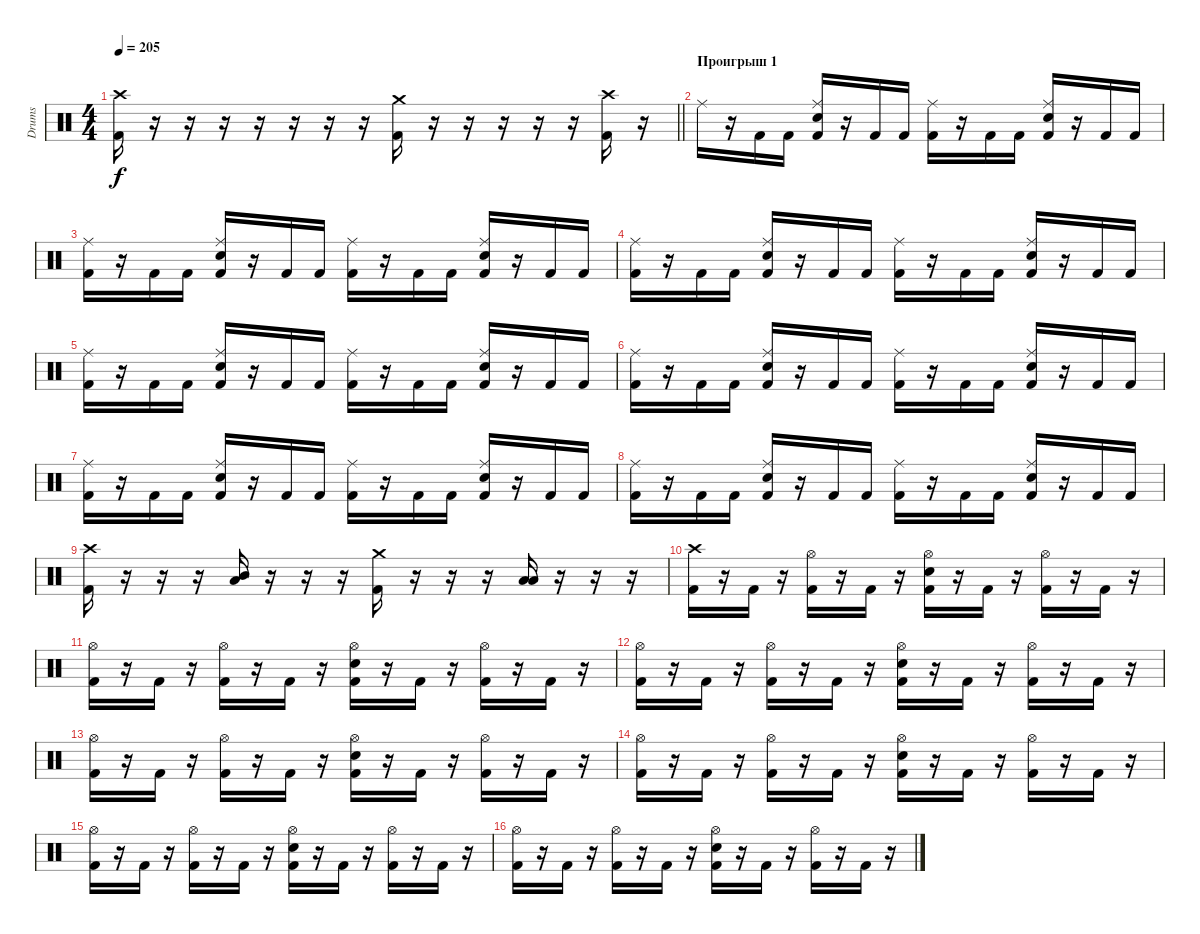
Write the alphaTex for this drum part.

\track ("Drums" "Drums") {instrument percussion}
\staff {score}
\articulation defaults
\ts (4 4)
\tempo 205
\clef neutral
\barLineRight lightlight
\ks c
("Crash high (hit)" "Kick (hit) 2").16{dy f} r.16 r.16 r.16 r.16 r.16 r.16 r.16 ("Crash medium (hit)" "Kick (hit) 2").16 r.16 r.16 r.16 r.16 r.16 ("Crash high (hit)" "Kick (hit) 2").16 r.16 |
\section ("" "Проигрыш 1")
"Ride (middle)".16 r.16 "Kick (hit) 2".16 "Kick (hit) 2".16 ("Ride (middle)" "Electric Snare (hit)" "Kick (hit) 2").16 r.16 "Kick (hit) 2".16 "Kick (hit) 2".16 ("Ride (middle)" "Kick (hit) 2").16 r.16 "Kick (hit) 2".16 "Kick (hit) 2".16 ("Ride (middle)" "Electric Snare (hit)" "Kick (hit) 2").16 r.16 "Kick (hit) 2".16 "Kick (hit) 2".16 |
("Ride (middle)" "Kick (hit) 2").16 r.16 "Kick (hit) 2".16 "Kick (hit) 2".16 ("Ride (middle)" "Electric Snare (hit)" "Kick (hit) 2").16 r.16 "Kick (hit) 2".16 "Kick (hit) 2".16 ("Ride (middle)" "Kick (hit) 2").16 r.16 "Kick (hit) 2".16 "Kick (hit) 2".16 ("Ride (middle)" "Electric Snare (hit)" "Kick (hit) 2").16 r.16 "Kick (hit) 2".16 "Kick (hit) 2".16 |
("Ride (middle)" "Kick (hit) 2").16 r.16 "Kick (hit) 2".16 "Kick (hit) 2".16 ("Ride (middle)" "Electric Snare (hit)" "Kick (hit) 2").16 r.16 "Kick (hit) 2".16 "Kick (hit) 2".16 ("Ride (middle)" "Kick (hit) 2").16 r.16 "Kick (hit) 2".16 "Kick (hit) 2".16 ("Ride (middle)" "Electric Snare (hit)" "Kick (hit) 2").16 r.16 "Kick (hit) 2".16 "Kick (hit) 2".16 |
("Ride (middle)" "Kick (hit) 2").16 r.16 "Kick (hit) 2".16 "Kick (hit) 2".16 ("Ride (middle)" "Electric Snare (hit)" "Kick (hit) 2").16 r.16 "Kick (hit) 2".16 "Kick (hit) 2".16 ("Ride (middle)" "Kick (hit) 2").16 r.16 "Kick (hit) 2".16 "Kick (hit) 2".16 ("Ride (middle)" "Electric Snare (hit)" "Kick (hit) 2").16 r.16 "Kick (hit) 2".16 "Kick (hit) 2".16 |
("Ride (middle)" "Kick (hit) 2").16 r.16 "Kick (hit) 2".16 "Kick (hit) 2".16 ("Ride (middle)" "Electric Snare (hit)" "Kick (hit) 2").16 r.16 "Kick (hit) 2".16 "Kick (hit) 2".16 ("Ride (middle)" "Kick (hit) 2").16 r.16 "Kick (hit) 2".16 "Kick (hit) 2".16 ("Ride (middle)" "Electric Snare (hit)" "Kick (hit) 2").16 r.16 "Kick (hit) 2".16 "Kick (hit) 2".16 |
("Ride (middle)" "Kick (hit) 2").16 r.16 "Kick (hit) 2".16 "Kick (hit) 2".16 ("Ride (middle)" "Electric Snare (hit)" "Kick (hit) 2").16 r.16 "Kick (hit) 2".16 "Kick (hit) 2".16 ("Ride (middle)" "Kick (hit) 2").16 r.16 "Kick (hit) 2".16 "Kick (hit) 2".16 ("Ride (middle)" "Electric Snare (hit)" "Kick (hit) 2").16 r.16 "Kick (hit) 2".16 "Kick (hit) 2".16 |
("Ride (middle)" "Kick (hit) 2").16 r.16 "Kick (hit) 2".16 "Kick (hit) 2".16 ("Ride (middle)" "Electric Snare (hit)" "Kick (hit) 2").16 r.16 "Kick (hit) 2".16 "Kick (hit) 2".16 ("Ride (middle)" "Kick (hit) 2").16 r.16 "Kick (hit) 2".16 "Kick (hit) 2".16 ("Ride (middle)" "Electric Snare (hit)" "Kick (hit) 2").16 r.16 "Kick (hit) 2".16 "Kick (hit) 2".16 |
("Crash high (hit)" "Kick (hit) 2").16 r.16 r.16 r.16 ("Mid Tom (hit)" "Low Tom (hit)").16 r.16 r.16 r.16 ("Crash medium (hit)" "Kick (hit) 2").16 r.16 r.16 r.16 ("Low Tom (hit)" "Low Floor Tom (hit)").16 r.16 r.16 r.16 |
("Crash high (hit)" "Kick (hit) 2").16 r.16 "Kick (hit) 2".16 r.16 ("Hi-Hat (open)" "Kick (hit) 2").16 r.16 "Kick (hit) 2".16 r.16 ("Hi-Hat (open)" "Electric Snare (hit)" "Kick (hit) 2").16 r.16 "Kick (hit) 2".16 r.16 ("Hi-Hat (open)" "Kick (hit) 2").16 r.16 "Kick (hit) 2".16 r.16 |
("Hi-Hat (open)" "Kick (hit) 2").16 r.16 "Kick (hit) 2".16 r.16 ("Hi-Hat (open)" "Kick (hit) 2").16 r.16 "Kick (hit) 2".16 r.16 ("Hi-Hat (open)" "Electric Snare (hit)" "Kick (hit) 2").16 r.16 "Kick (hit) 2".16 r.16 ("Hi-Hat (open)" "Kick (hit) 2").16 r.16 "Kick (hit) 2".16 r.16 |
("Hi-Hat (open)" "Kick (hit) 2").16 r.16 "Kick (hit) 2".16 r.16 ("Hi-Hat (open)" "Kick (hit) 2").16 r.16 "Kick (hit) 2".16 r.16 ("Hi-Hat (open)" "Electric Snare (hit)" "Kick (hit) 2").16 r.16 "Kick (hit) 2".16 r.16 ("Hi-Hat (open)" "Kick (hit) 2").16 r.16 "Kick (hit) 2".16 r.16 |
("Hi-Hat (open)" "Kick (hit) 2").16 r.16 "Kick (hit) 2".16 r.16 ("Hi-Hat (open)" "Kick (hit) 2").16 r.16 "Kick (hit) 2".16 r.16 ("Hi-Hat (open)" "Electric Snare (hit)" "Kick (hit) 2").16 r.16 "Kick (hit) 2".16 r.16 ("Hi-Hat (open)" "Kick (hit) 2").16 r.16 "Kick (hit) 2".16 r.16 |
("Hi-Hat (open)" "Kick (hit) 2").16 r.16 "Kick (hit) 2".16 r.16 ("Hi-Hat (open)" "Kick (hit) 2").16 r.16 "Kick (hit) 2".16 r.16 ("Hi-Hat (open)" "Electric Snare (hit)" "Kick (hit) 2").16 r.16 "Kick (hit) 2".16 r.16 ("Hi-Hat (open)" "Kick (hit) 2").16 r.16 "Kick (hit) 2".16 r.16 |
("Hi-Hat (open)" "Kick (hit) 2").16 r.16 "Kick (hit) 2".16 r.16 ("Hi-Hat (open)" "Kick (hit) 2").16 r.16 "Kick (hit) 2".16 r.16 ("Hi-Hat (open)" "Electric Snare (hit)" "Kick (hit) 2").16 r.16 "Kick (hit) 2".16 r.16 ("Hi-Hat (open)" "Kick (hit) 2").16 r.16 "Kick (hit) 2".16 r.16 |
("Hi-Hat (open)" "Kick (hit) 2").16 r.16 "Kick (hit) 2".16 r.16 ("Hi-Hat (open)" "Kick (hit) 2").16 r.16 "Kick (hit) 2".16 r.16 ("Hi-Hat (open)" "Electric Snare (hit)" "Kick (hit) 2").16 r.16 "Kick (hit) 2".16 r.16 ("Hi-Hat (open)" "Kick (hit) 2").16 r.16 "Kick (hit) 2".16 r.16
